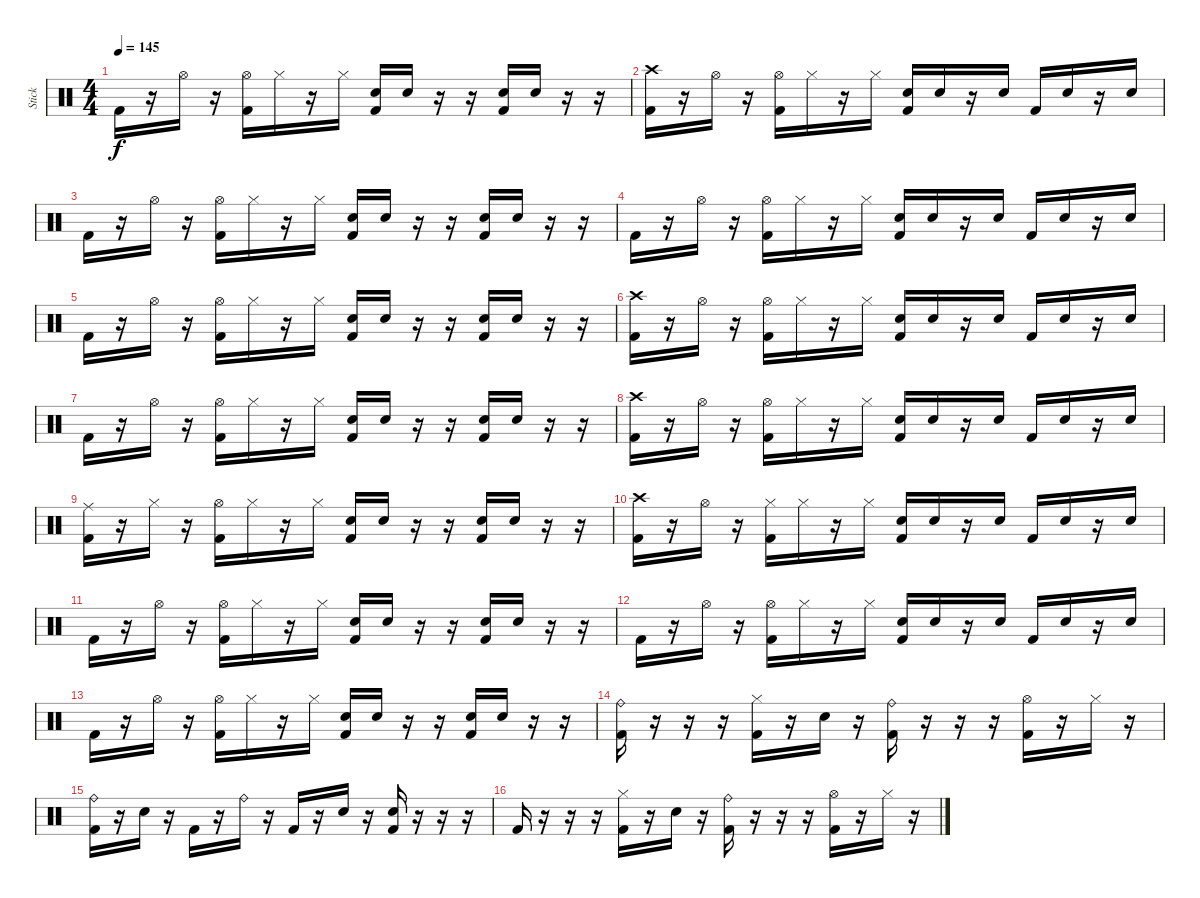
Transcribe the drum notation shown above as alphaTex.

\track ("Stick" "Stick") {instrument percussion}
\staff {score}
\articulation defaults
\ts (4 4)
\tempo 145
\clef neutral
\ks c "Kick (hit) 2".16{dy f}
r.16 "Hi-Hat (open)".16 r.16 ("Kick (hit) 2" "Hi-Hat (open)").16 "Hi-Hat (closed)".16 r.16 "Hi-Hat (closed)".16 ("Kick (hit) 2" "Electric Snare (hit)").16 "Electric Snare (hit)".16 r.16 r.16 ("Kick (hit) 2" "Electric Snare (hit)").16 "Electric Snare (hit)".16 r.16 r.16 |
("Kick (hit) 2" "Crash high (hit)").16 r.16 "Hi-Hat (open)".16 r.16 ("Kick (hit) 2" "Hi-Hat (open)").16 "Hi-Hat (closed)".16 r.16 "Hi-Hat (closed)".16 ("Kick (hit) 2" "Electric Snare (hit)").16 "Electric Snare (hit)".16 r.16 "Electric Snare (hit)".16 "Kick (hit) 2".16 "Electric Snare (hit)".16 r.16 "Electric Snare (hit)".16 |
"Kick (hit) 2".16 r.16 "Hi-Hat (open)".16 r.16 ("Kick (hit) 2" "Hi-Hat (open)").16 "Hi-Hat (closed)".16 r.16 "Hi-Hat (closed)".16 ("Kick (hit) 2" "Electric Snare (hit)").16 "Electric Snare (hit)".16 r.16 r.16 ("Kick (hit) 2" "Electric Snare (hit)").16 "Electric Snare (hit)".16 r.16 r.16 |
"Kick (hit) 2".16 r.16 "Hi-Hat (open)".16 r.16 ("Kick (hit) 2" "Hi-Hat (open)").16 "Hi-Hat (closed)".16 r.16 "Hi-Hat (closed)".16 ("Kick (hit) 2" "Electric Snare (hit)").16 "Electric Snare (hit)".16 r.16 "Electric Snare (hit)".16 "Kick (hit) 2".16 "Electric Snare (hit)".16 r.16 "Electric Snare (hit)".16 |
"Kick (hit) 2".16 r.16 "Hi-Hat (open)".16 r.16 ("Kick (hit) 2" "Hi-Hat (open)").16 "Hi-Hat (closed)".16 r.16 "Hi-Hat (closed)".16 ("Kick (hit) 2" "Electric Snare (hit)").16 "Electric Snare (hit)".16 r.16 r.16 ("Kick (hit) 2" "Electric Snare (hit)").16 "Electric Snare (hit)".16 r.16 r.16 |
("Kick (hit) 2" "Crash high (hit)").16 r.16 "Hi-Hat (open)".16 r.16 ("Kick (hit) 2" "Hi-Hat (open)").16 "Hi-Hat (closed)".16 r.16 "Hi-Hat (closed)".16 ("Kick (hit) 2" "Electric Snare (hit)").16 "Electric Snare (hit)".16 r.16 "Electric Snare (hit)".16 "Kick (hit) 2".16 "Electric Snare (hit)".16 r.16 "Electric Snare (hit)".16 |
"Kick (hit) 2".16 r.16 "Hi-Hat (open)".16 r.16 ("Kick (hit) 2" "Hi-Hat (open)").16 "Hi-Hat (closed)".16 r.16 "Hi-Hat (closed)".16 ("Kick (hit) 2" "Electric Snare (hit)").16 "Electric Snare (hit)".16 r.16 r.16 ("Kick (hit) 2" "Electric Snare (hit)").16 "Electric Snare (hit)".16 r.16 r.16 |
("Kick (hit) 2" "Crash high (hit)").16 r.16 "Hi-Hat (open)".16 r.16 ("Kick (hit) 2" "Hi-Hat (open)").16 "Hi-Hat (closed)".16 r.16 "Hi-Hat (closed)".16 ("Kick (hit) 2" "Electric Snare (hit)").16 "Electric Snare (hit)".16 r.16 "Electric Snare (hit)".16 "Kick (hit) 2".16 "Electric Snare (hit)".16 r.16 "Electric Snare (hit)".16 |
("Kick (hit) 2" "Ride (middle)").16 r.16 "Hi-Hat (closed)".16 r.16 ("Kick (hit) 2" "Hi-Hat (open)").16 "Hi-Hat (closed)".16 r.16 "Hi-Hat (closed)".16 ("Kick (hit) 2" "Electric Snare (hit)").16 "Electric Snare (hit)".16 r.16 r.16 ("Kick (hit) 2" "Electric Snare (hit)").16 "Electric Snare (hit)".16 r.16 r.16 |
("Kick (hit) 2" "Crash high (hit)").16 r.16 "Hi-Hat (open)".16 r.16 ("Kick (hit) 2" "Hi-Hat (closed)").16 "Hi-Hat (closed)".16 r.16 "Hi-Hat (closed)".16 ("Kick (hit) 2" "Electric Snare (hit)").16 "Electric Snare (hit)".16 r.16 "Electric Snare (hit)".16 "Kick (hit) 2".16 "Electric Snare (hit)".16 r.16 "Electric Snare (hit)".16 |
"Kick (hit) 2".16 r.16 "Hi-Hat (open)".16 r.16 ("Kick (hit) 2" "Hi-Hat (open)").16 "Hi-Hat (closed)".16 r.16 "Hi-Hat (closed)".16 ("Kick (hit) 2" "Electric Snare (hit)").16 "Electric Snare (hit)".16 r.16 r.16 ("Kick (hit) 2" "Electric Snare (hit)").16 "Electric Snare (hit)".16 r.16 r.16 |
"Kick (hit) 2".16 r.16 "Hi-Hat (open)".16 r.16 ("Kick (hit) 2" "Hi-Hat (open)").16 "Hi-Hat (closed)".16 r.16 "Hi-Hat (closed)".16 ("Kick (hit) 2" "Electric Snare (hit)").16 "Electric Snare (hit)".16 r.16 "Electric Snare (hit)".16 "Kick (hit) 2".16 "Electric Snare (hit)".16 r.16 "Electric Snare (hit)".16 |
"Kick (hit) 2".16 r.16 "Hi-Hat (open)".16 r.16 ("Kick (hit) 2" "Hi-Hat (open)").16 "Hi-Hat (closed)".16 r.16 "Hi-Hat (closed)".16 ("Kick (hit) 2" "Electric Snare (hit)").16 "Electric Snare (hit)".16 r.16 r.16 ("Kick (hit) 2" "Electric Snare (hit)").16 "Electric Snare (hit)".16 r.16 r.16 |
("Kick (hit) 2" "Ride (bell)").16 r.16 r.16 r.16 ("Kick (hit) 2" "Hi-Hat (closed)").16 r.16 "Electric Snare (hit)".16 r.16 ("Kick (hit) 2" "Ride (bell)").16 r.16 r.16 r.16 ("Kick (hit) 2" "Hi-Hat (open)").16 r.16 "Hi-Hat (closed)".16 r.16 |
("Kick (hit) 2" "Ride (bell)").16 r.16 "Electric Snare (hit)".16 r.16 "Kick (hit) 2".16 r.16 "Ride (bell)".16 r.16 "Kick (hit) 2".16 r.16 "Electric Snare (hit)".16 r.16 ("Kick (hit) 2" "Electric Snare (hit)").16 r.16 r.16 r.16 |
"Kick (hit) 2".16 r.16 r.16 r.16 ("Kick (hit) 2" "Hi-Hat (closed)").16 r.16 "Electric Snare (hit)".16 r.16 ("Kick (hit) 2" "Ride (bell)").16 r.16 r.16 r.16 ("Kick (hit) 2" "Hi-Hat (open)").16 r.16 "Hi-Hat (closed)".16 r.16
